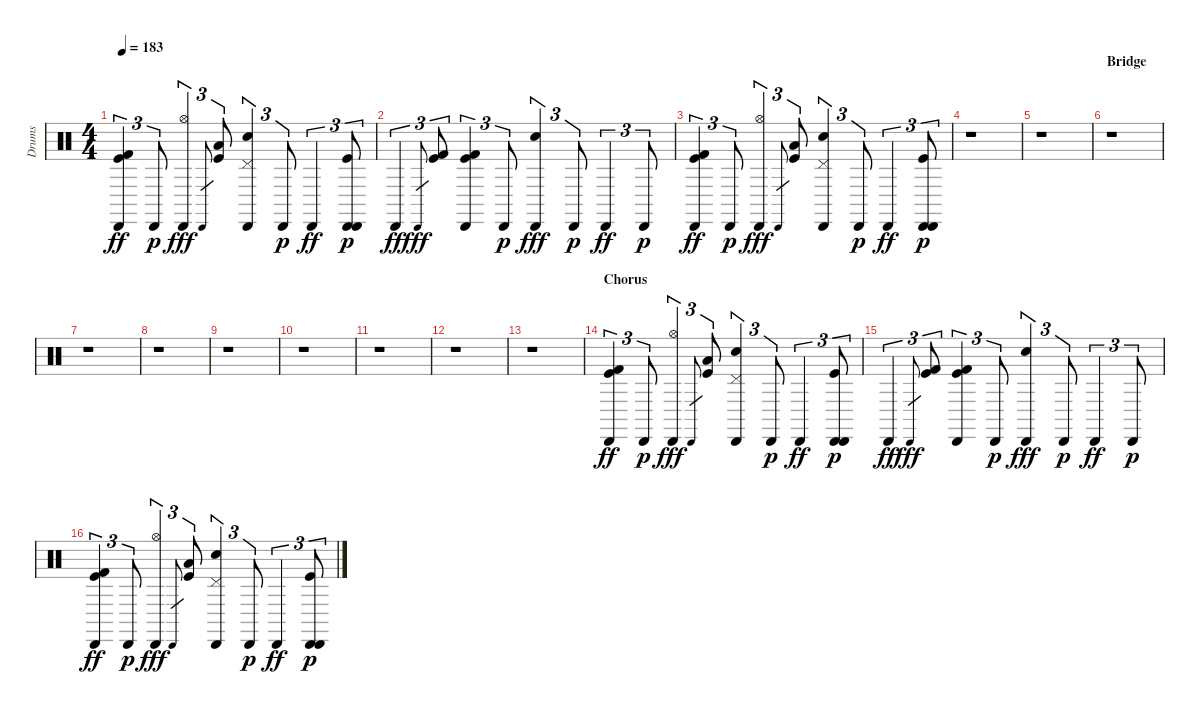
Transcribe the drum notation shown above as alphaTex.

\track ("Drums" "Drums") {instrument percussion}
\staff {score}
\articulation defaults
\ts (4 4)
\tempo 183
\clef neutral
\ks c
("Kick (hit) 2" "Kick (hit)" "Cabasa (hit)").4{tu (3 2) dy ff} "Cabasa (hit)".8{tu (3 2) dy p} ("Cabasa (hit)" "Hi-Hat (open)").4{tu (3 2) dy fff} "Cabasa (hit)".8{gr} ("Kick (hit)" "Low Floor Tom (hit)").8{tu (3 2)} ("Cabasa (hit)" "Electric Snare (hit)" "Pedal Hi-Hat (hit)").4{tu (3 2)} "Cabasa (hit)".8{tu (3 2) dy p} "Cabasa (hit)".4{tu (3 2) dy ff} ("Cabasa (hit)" "Kick (hit)" "Cabasa (hit)").8{tu (3 2) dy p} |
"Cabasa (hit)".4{tu (3 2) dy ff} "Cabasa (hit)".8{gr dy fff} ("Kick (hit)" "Kick (hit) 2").8{tu (3 2)} ("Cabasa (hit)" "Kick (hit)" "Kick (hit) 2").4{tu (3 2)} "Cabasa (hit)".8{tu (3 2) dy p} ("Cabasa (hit)" "Electric Snare (hit)").4{tu (3 2) dy fff} "Cabasa (hit)".8{tu (3 2) dy p} "Cabasa (hit)".4{tu (3 2) dy ff} "Cabasa (hit)".8{tu (3 2) dy p} |
("Kick (hit) 2" "Kick (hit)" "Cabasa (hit)").4{tu (3 2) dy ff} "Cabasa (hit)".8{tu (3 2) dy p} ("Cabasa (hit)" "Hi-Hat (open)").4{tu (3 2) dy fff} "Cabasa (hit)".8{gr} ("Kick (hit)" "Low Floor Tom (hit)").8{tu (3 2)} ("Cabasa (hit)" "Electric Snare (hit)" "Pedal Hi-Hat (hit)").4{tu (3 2)} "Cabasa (hit)".8{tu (3 2) dy p} "Cabasa (hit)".4{tu (3 2) dy ff} ("Cabasa (hit)" "Kick (hit)" "Cabasa (hit)").8{tu (3 2) dy p} |
r.1 |
r.1 |
\section ("" "Bridge")
r.1 |
r.1 |
r.1 |
r.1 |
r.1 |
r.1 |
r.1 |
r.1 |
\section ("" "Chorus")
("Kick (hit) 2" "Kick (hit)" "Cabasa (hit)").4{tu (3 2) dy ff} "Cabasa (hit)".8{tu (3 2) dy p} ("Cabasa (hit)" "Hi-Hat (open)").4{tu (3 2) dy fff} "Cabasa (hit)".8{gr} ("Kick (hit)" "Low Floor Tom (hit)").8{tu (3 2)} ("Cabasa (hit)" "Electric Snare (hit)" "Pedal Hi-Hat (hit)").4{tu (3 2)} "Cabasa (hit)".8{tu (3 2) dy p} "Cabasa (hit)".4{tu (3 2) dy ff} ("Cabasa (hit)" "Kick (hit)" "Cabasa (hit)").8{tu (3 2) dy p} |
"Cabasa (hit)".4{tu (3 2) dy ff} "Cabasa (hit)".8{gr dy fff} ("Kick (hit)" "Kick (hit) 2").8{tu (3 2)} ("Cabasa (hit)" "Kick (hit)" "Kick (hit) 2").4{tu (3 2)} "Cabasa (hit)".8{tu (3 2) dy p} ("Cabasa (hit)" "Electric Snare (hit)").4{tu (3 2) dy fff} "Cabasa (hit)".8{tu (3 2) dy p} "Cabasa (hit)".4{tu (3 2) dy ff} "Cabasa (hit)".8{tu (3 2) dy p} |
("Kick (hit) 2" "Kick (hit)" "Cabasa (hit)").4{tu (3 2) dy ff} "Cabasa (hit)".8{tu (3 2) dy p} ("Cabasa (hit)" "Hi-Hat (open)").4{tu (3 2) dy fff} "Cabasa (hit)".8{gr} ("Kick (hit)" "Low Floor Tom (hit)").8{tu (3 2)} ("Cabasa (hit)" "Electric Snare (hit)" "Pedal Hi-Hat (hit)").4{tu (3 2)} "Cabasa (hit)".8{tu (3 2) dy p} "Cabasa (hit)".4{tu (3 2) dy ff} ("Cabasa (hit)" "Kick (hit)" "Cabasa (hit)").8{tu (3 2) dy p}
